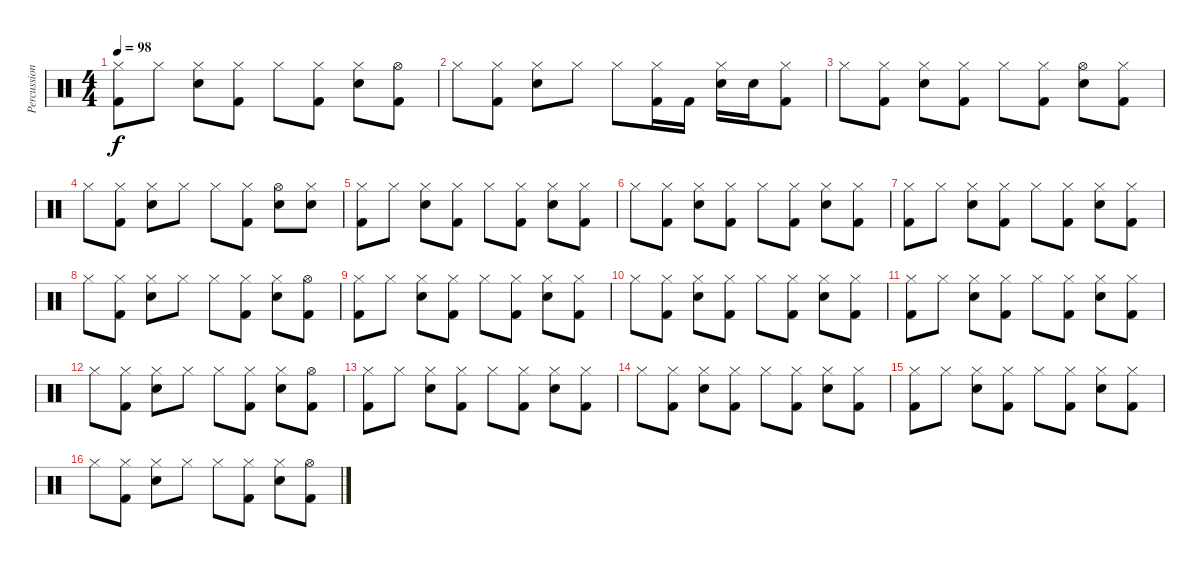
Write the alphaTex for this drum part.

\track ("Percussion" "Percussion") {instrument percussion}
\staff {score}
\articulation defaults
\ts (4 4)
\tempo 98
\clef neutral
\ks c
("Hi-Hat (closed)" "Kick (hit) 2").8{dy f} "Hi-Hat (closed)".8 ("Hi-Hat (closed)" "Electric Snare (hit)").8 ("Hi-Hat (closed)" "Kick (hit) 2").8 "Hi-Hat (closed)".8 ("Hi-Hat (closed)" "Kick (hit) 2").8 ("Hi-Hat (closed)" "Electric Snare (hit)").8 ("Hi-Hat (open)" "Kick (hit) 2").8 |
"Hi-Hat (closed)".8 ("Hi-Hat (closed)" "Kick (hit) 2").8 ("Hi-Hat (closed)" "Electric Snare (hit)").8 "Hi-Hat (closed)".8 "Hi-Hat (closed)".8 ("Hi-Hat (closed)" "Kick (hit) 2").16 "Kick (hit) 2".16 ("Hi-Hat (closed)" "Electric Snare (hit)").16 "Electric Snare (hit)".16 ("Hi-Hat (closed)" "Kick (hit) 2").8 |
"Hi-Hat (closed)".8 ("Hi-Hat (closed)" "Kick (hit) 2").8 ("Hi-Hat (closed)" "Electric Snare (hit)").8 ("Hi-Hat (closed)" "Kick (hit) 2").8 "Hi-Hat (closed)".8 ("Hi-Hat (closed)" "Kick (hit) 2").8 ("Hi-Hat (open)" "Electric Snare (hit)").8 ("Hi-Hat (closed)" "Kick (hit) 2").8 |
"Hi-Hat (closed)".8 ("Hi-Hat (closed)" "Kick (hit) 2").8 ("Hi-Hat (closed)" "Electric Snare (hit)").8 "Hi-Hat (closed)".8 "Hi-Hat (closed)".8 ("Hi-Hat (closed)" "Kick (hit) 2").8 ("Hi-Hat (open)" "Electric Snare (hit)").8 ("Hi-Hat (closed)" "Electric Snare (hit)").8 |
("Hi-Hat (closed)" "Kick (hit) 2").8 "Hi-Hat (closed)".8 ("Hi-Hat (closed)" "Electric Snare (hit)").8 ("Hi-Hat (closed)" "Kick (hit) 2").8 "Hi-Hat (closed)".8 ("Hi-Hat (closed)" "Kick (hit) 2").8 ("Hi-Hat (closed)" "Electric Snare (hit)").8 ("Hi-Hat (closed)" "Kick (hit) 2").8 |
"Hi-Hat (closed)".8 ("Hi-Hat (closed)" "Kick (hit) 2").8 ("Hi-Hat (closed)" "Electric Snare (hit)").8 ("Hi-Hat (closed)" "Kick (hit) 2").8 "Hi-Hat (closed)".8 ("Hi-Hat (closed)" "Kick (hit) 2").8 ("Hi-Hat (closed)" "Electric Snare (hit)").8 ("Hi-Hat (closed)" "Kick (hit) 2").8 |
("Hi-Hat (closed)" "Kick (hit) 2").8 "Hi-Hat (closed)".8 ("Hi-Hat (closed)" "Electric Snare (hit)").8 ("Hi-Hat (closed)" "Kick (hit) 2").8 "Hi-Hat (closed)".8 ("Hi-Hat (closed)" "Kick (hit) 2").8 ("Hi-Hat (closed)" "Electric Snare (hit)").8 ("Hi-Hat (closed)" "Kick (hit) 2").8 |
"Hi-Hat (closed)".8 ("Hi-Hat (closed)" "Kick (hit) 2").8 ("Hi-Hat (closed)" "Electric Snare (hit)").8 "Hi-Hat (closed)".8 "Hi-Hat (closed)".8 ("Hi-Hat (closed)" "Kick (hit) 2").8 ("Hi-Hat (closed)" "Electric Snare (hit)").8 ("Hi-Hat (open)" "Kick (hit) 2").8 |
("Hi-Hat (closed)" "Kick (hit) 2").8 "Hi-Hat (closed)".8 ("Hi-Hat (closed)" "Electric Snare (hit)").8 ("Hi-Hat (closed)" "Kick (hit) 2").8 "Hi-Hat (closed)".8 ("Hi-Hat (closed)" "Kick (hit) 2").8 ("Hi-Hat (closed)" "Electric Snare (hit)").8 ("Hi-Hat (closed)" "Kick (hit) 2").8 |
"Hi-Hat (closed)".8 ("Hi-Hat (closed)" "Kick (hit) 2").8 ("Hi-Hat (closed)" "Electric Snare (hit)").8 ("Hi-Hat (closed)" "Kick (hit) 2").8 "Hi-Hat (closed)".8 ("Hi-Hat (closed)" "Kick (hit) 2").8 ("Hi-Hat (closed)" "Electric Snare (hit)").8 ("Hi-Hat (closed)" "Kick (hit) 2").8 |
("Hi-Hat (closed)" "Kick (hit) 2").8 "Hi-Hat (closed)".8 ("Hi-Hat (closed)" "Electric Snare (hit)").8 ("Hi-Hat (closed)" "Kick (hit) 2").8 "Hi-Hat (closed)".8 ("Hi-Hat (closed)" "Kick (hit) 2").8 ("Hi-Hat (closed)" "Electric Snare (hit)").8 ("Hi-Hat (closed)" "Kick (hit) 2").8 |
"Hi-Hat (closed)".8 ("Hi-Hat (closed)" "Kick (hit) 2").8 ("Hi-Hat (closed)" "Electric Snare (hit)").8 "Hi-Hat (closed)".8 "Hi-Hat (closed)".8 ("Hi-Hat (closed)" "Kick (hit) 2").8 ("Hi-Hat (closed)" "Electric Snare (hit)").8 ("Hi-Hat (open)" "Kick (hit) 2").8 |
("Hi-Hat (closed)" "Kick (hit) 2").8 "Hi-Hat (closed)".8 ("Hi-Hat (closed)" "Electric Snare (hit)").8 ("Hi-Hat (closed)" "Kick (hit) 2").8 "Hi-Hat (closed)".8 ("Hi-Hat (closed)" "Kick (hit) 2").8 ("Hi-Hat (closed)" "Electric Snare (hit)").8 ("Hi-Hat (closed)" "Kick (hit) 2").8 |
"Hi-Hat (closed)".8 ("Hi-Hat (closed)" "Kick (hit) 2").8 ("Hi-Hat (closed)" "Electric Snare (hit)").8 ("Hi-Hat (closed)" "Kick (hit) 2").8 "Hi-Hat (closed)".8 ("Hi-Hat (closed)" "Kick (hit) 2").8 ("Hi-Hat (closed)" "Electric Snare (hit)").8 ("Hi-Hat (closed)" "Kick (hit) 2").8 |
("Hi-Hat (closed)" "Kick (hit) 2").8 "Hi-Hat (closed)".8 ("Hi-Hat (closed)" "Electric Snare (hit)").8 ("Hi-Hat (closed)" "Kick (hit) 2").8 "Hi-Hat (closed)".8 ("Hi-Hat (closed)" "Kick (hit) 2").8 ("Hi-Hat (closed)" "Electric Snare (hit)").8 ("Hi-Hat (closed)" "Kick (hit) 2").8 |
"Hi-Hat (closed)".8 ("Hi-Hat (closed)" "Kick (hit) 2").8 ("Hi-Hat (closed)" "Electric Snare (hit)").8 "Hi-Hat (closed)".8 "Hi-Hat (closed)".8 ("Hi-Hat (closed)" "Kick (hit) 2").8 ("Hi-Hat (closed)" "Electric Snare (hit)").8 ("Hi-Hat (open)" "Kick (hit) 2").8
